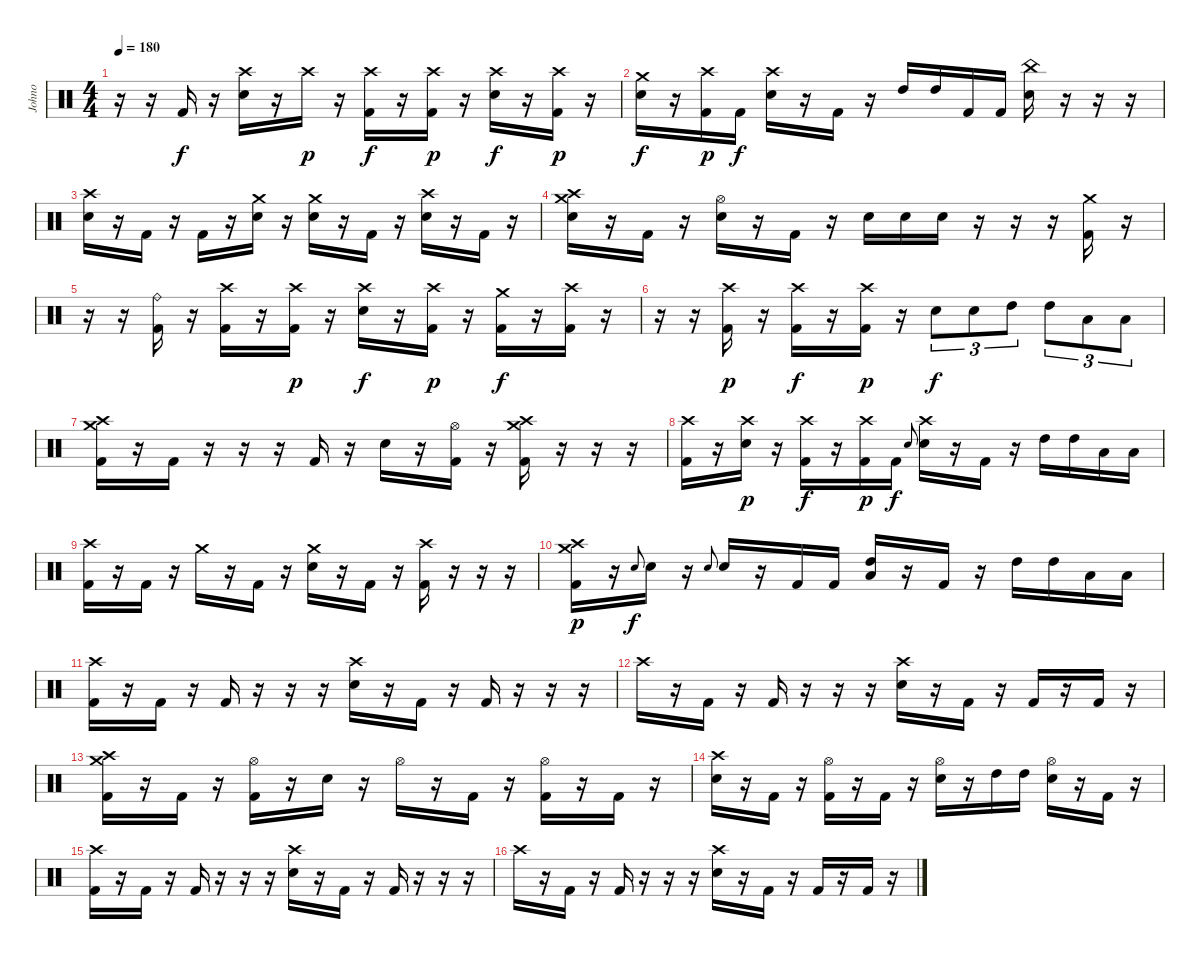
\track (" Johno" " Johno") {instrument percussion}
\staff {score}
\articulation defaults
\ts (4 4)
\tempo 180
\clef neutral
\ks c
r.16{dy f} r.16 "Kick (hit) 2".16 r.16 ("Crash high (hit)" "Electric Snare (hit)").16 r.16 "Crash high (hit)".16{dy p} r.16 ("Crash high (hit)" "Kick (hit) 2").16{dy f} r.16 ("Crash high (hit)" "Kick (hit) 2").16{dy p} r.16 ("Crash high (hit)" "Electric Snare (hit)").16{dy f} r.16 ("Crash high (hit)" "Kick (hit) 2").16{dy p} r.16 |
("Crash medium (hit)" "Electric Snare (hit)").16{dy f} r.16 ("Crash high (hit)" "Kick (hit) 2").16{dy p} "Kick (hit) 2".16{dy f} ("Crash high (hit)" "Electric Snare (hit)").16 r.16 "Kick (hit) 2".16 r.16 "High Tom (hit)".16 "High Tom (hit)".16 "Kick (hit) 2".16 "Kick (hit) 2".16 ("China (hit)" "Electric Snare (hit)").16 r.16 r.16 r.16 |
("Crash high (hit)" "Electric Snare (hit)").16 r.16 "Kick (hit) 2".16 r.16 "Kick (hit) 2".16 r.16 ("Crash medium (hit)" "Electric Snare (hit)").16 r.16 ("Crash medium (hit)" "Electric Snare (hit)").16 r.16 "Kick (hit) 2".16 r.16 ("Crash high (hit)" "Electric Snare (hit)").16 r.16 "Kick (hit) 2".16 r.16 |
("Crash medium (hit)" "Crash high (hit)" "Electric Snare (hit)").16 r.16 "Kick (hit) 2".16 r.16 ("Hi-Hat (open)" "Electric Snare (hit)").16 r.16 "Kick (hit) 2".16 r.16 "Electric Snare (hit)".16 "Electric Snare (hit)".16 "Electric Snare (hit)".16 r.16 r.16 r.16 ("Crash medium (hit)" "Kick (hit) 2").16 r.16 |
r.16 r.16 ("Ride (bell)" "Kick (hit) 2").16 r.16 ("Crash high (hit)" "Kick (hit) 2").16 r.16 ("Crash high (hit)" "Kick (hit) 2").16{dy p} r.16 ("Crash high (hit)" "Electric Snare (hit)").16{dy f} r.16 ("Crash high (hit)" "Kick (hit) 2").16{dy p} r.16 ("Crash medium (hit)" "Kick (hit) 2").16{dy f} r.16 ("Crash high (hit)" "Kick (hit) 2").16 r.16 |
r.16 r.16 ("Crash high (hit)" "Kick (hit) 2").16{dy p} r.16 ("Crash high (hit)" "Kick (hit) 2").16{dy f} r.16 ("Crash high (hit)" "Kick (hit) 2").16{dy p} r.16 "Electric Snare (hit)".8{tu (3 2) dy f} "Electric Snare (hit)".8{tu (3 2)} "High Tom (hit)".8{tu (3 2)} "High Tom (hit)".8{tu (3 2)} "Low Floor Tom (hit)".8{tu (3 2)} "Low Floor Tom (hit)".8{tu (3 2)} |
("Crash medium (hit)" "Crash high (hit)" "Kick (hit) 2").16 r.16 "Kick (hit) 2".16 r.16 r.16 r.16 "Kick (hit) 2".16 r.16 "Electric Snare (hit)".16 r.16 ("Hi-Hat (open)" "Kick (hit) 2").16 r.16 ("Crash medium (hit)" "Crash high (hit)" "Kick (hit) 2").16 r.16 r.16 r.16 |
("Crash high (hit)" "Kick (hit) 2").16 r.16 ("Crash high (hit)" "Electric Snare (hit)").16{dy p} r.16 ("Crash high (hit)" "Kick (hit) 2").16{dy f} r.16 ("Crash high (hit)" "Kick (hit) 2").16{dy p} "Kick (hit) 2".16{dy f} "Electric Snare (hit)".8{gr onbeat} ("Crash high (hit)" "Electric Snare (hit)").16 r.16 "Kick (hit) 2".16 r.16 "High Tom (hit)".16 "High Tom (hit)".16 "Low Floor Tom (hit)".16 "Low Floor Tom (hit)".16 |
("Crash high (hit)" "Kick (hit) 2").16 r.16 "Kick (hit) 2".16 r.16 "Crash medium (hit)".16 r.16 "Kick (hit) 2".16 r.16 ("Crash medium (hit)" "Electric Snare (hit)").16 r.16 "Kick (hit) 2".16 r.16 ("Crash high (hit)" "Kick (hit) 2").16 r.16 r.16 r.16 |
("Crash high (hit)" "Crash medium (hit)" "Kick (hit) 2").16{dy p} r.16 "Electric Snare (hit)".8{gr onbeat dy f} "Electric Snare (hit)".16 r.16 "Electric Snare (hit)".8{gr onbeat} "Electric Snare (hit)".16 r.16 "Kick (hit) 2".16 "Kick (hit) 2".16 ("High Tom (hit)" "Low Floor Tom (hit)").16 r.16 "Kick (hit) 2".16 r.16 "High Tom (hit)".16 "High Tom (hit)".16 "Low Floor Tom (hit)".16 "Low Floor Tom (hit)".16 |
("Crash high (hit)" "Kick (hit) 2").16 r.16 "Kick (hit) 2".16 r.16 "Kick (hit) 2".16 r.16 r.16 r.16 ("Crash high (hit)" "Electric Snare (hit)").16 r.16 "Kick (hit) 2".16 r.16 "Kick (hit) 2".16 r.16 r.16 r.16 |
"Crash high (hit)".16 r.16 "Kick (hit) 2".16 r.16 "Kick (hit) 2".16 r.16 r.16 r.16 ("Crash high (hit)" "Electric Snare (hit)").16 r.16 "Kick (hit) 2".16 r.16 "Kick (hit) 2".16 r.16 "Kick (hit) 2".16 r.16 |
("Crash medium (hit)" "Crash high (hit)" "Kick (hit) 2").16 r.16 "Kick (hit) 2".16 r.16 ("Hi-Hat (open)" "Kick (hit) 2").16 r.16 "Electric Snare (hit)".16 r.16 "Hi-Hat (open)".16 r.16 "Kick (hit) 2".16 r.16 ("Hi-Hat (open)" "Kick (hit) 2").16 r.16 "Kick (hit) 2".16 r.16 |
("Crash high (hit)" "Electric Snare (hit)").16 r.16 "Kick (hit) 2".16 r.16 ("Hi-Hat (open)" "Kick (hit) 2").16 r.16 "Kick (hit) 2".16 r.16 ("Hi-Hat (open)" "Electric Snare (hit)").16 r.16 "High Tom (hit)".16 "High Tom (hit)".16 ("Hi-Hat (open)" "Electric Snare (hit)").16 r.16 "Kick (hit) 2".16 r.16 |
("Crash high (hit)" "Kick (hit) 2").16 r.16 "Kick (hit) 2".16 r.16 "Kick (hit) 2".16 r.16 r.16 r.16 ("Crash high (hit)" "Electric Snare (hit)").16 r.16 "Kick (hit) 2".16 r.16 "Kick (hit) 2".16 r.16 r.16 r.16 |
"Crash high (hit)".16 r.16 "Kick (hit) 2".16 r.16 "Kick (hit) 2".16 r.16 r.16 r.16 ("Crash high (hit)" "Electric Snare (hit)").16 r.16 "Kick (hit) 2".16 r.16 "Kick (hit) 2".16 r.16 "Kick (hit) 2".16 r.16
